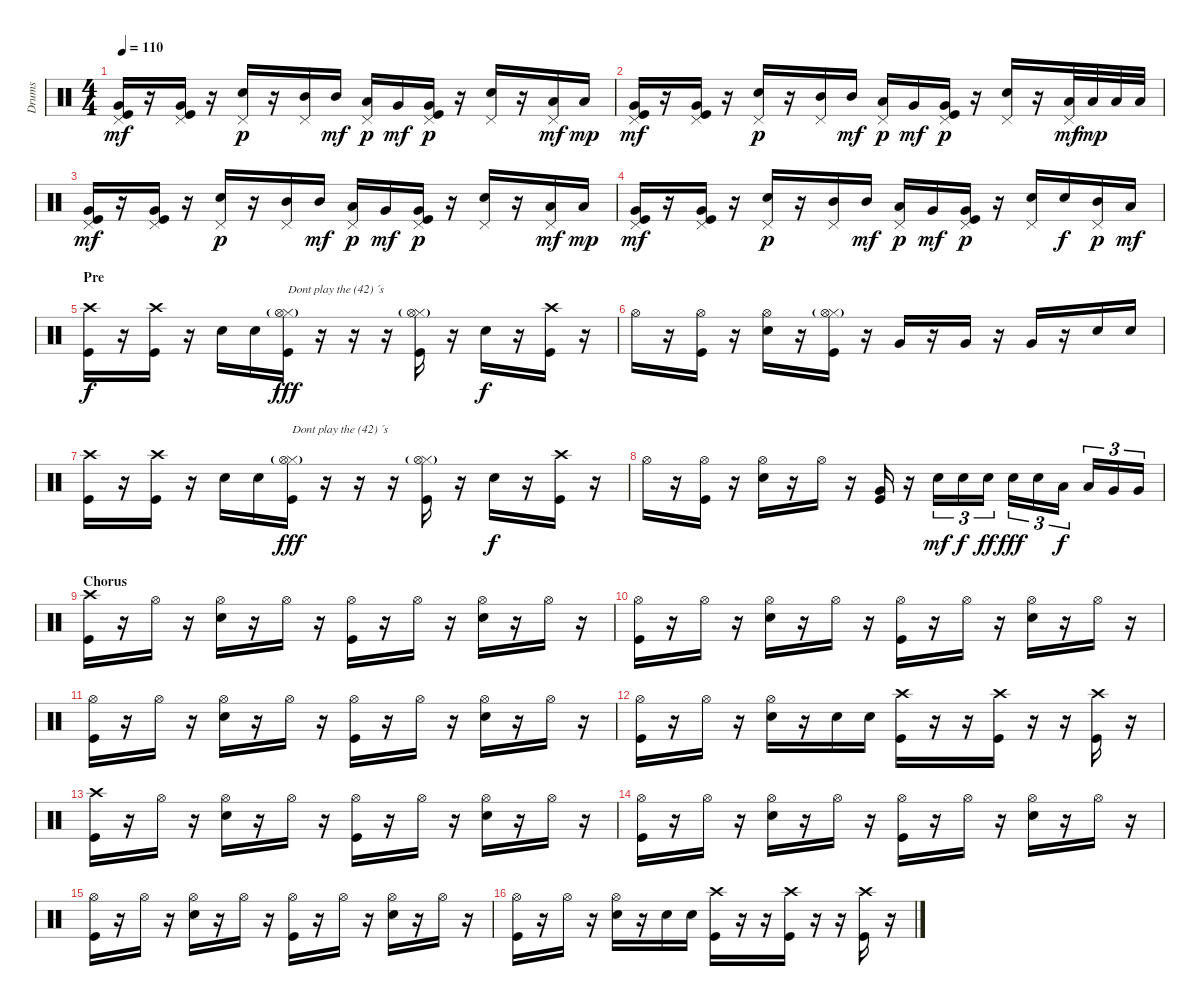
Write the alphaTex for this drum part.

\track ("Drums" "Drums") {instrument percussion}
\staff {score}
\articulation defaults
\ts (4 4)
\tempo 110
\clef neutral
\ks c
("Pedal Hi-Hat (hit)" "Very Low Tom (hit)" "Kick (hit)").16{dy mf} r.16 ("Pedal Hi-Hat (hit)" "Very Low Tom (hit)" "Kick (hit)").16 r.16 ("Pedal Hi-Hat (hit)" "Snare (hit) 2").16{dy p} r.16 ("Pedal Hi-Hat (hit)" "Mid Tom (hit)").16 "Mid Tom (hit)".16{dy mf} ("Pedal Hi-Hat (hit)" "Low Tom (hit)").16{dy p} "Very Low Tom (hit)".16{dy mf} ("Pedal Hi-Hat (hit)" "Very Low Tom (hit)" "Kick (hit)").16{dy p} r.16 ("Pedal Hi-Hat (hit)" "Snare (hit) 2").16 r.16 ("Pedal Hi-Hat (hit)" "Low Tom (hit)").16{dy mf} "Low Tom (hit)".16{dy mp} |
("Pedal Hi-Hat (hit)" "Very Low Tom (hit)" "Kick (hit)").16{dy mf} r.16 ("Pedal Hi-Hat (hit)" "Very Low Tom (hit)" "Kick (hit)").16 r.16 ("Pedal Hi-Hat (hit)" "Snare (hit) 2").16{dy p} r.16 ("Pedal Hi-Hat (hit)" "Mid Tom (hit)").16 "Mid Tom (hit)".16{dy mf} ("Pedal Hi-Hat (hit)" "Low Tom (hit)").16{dy p} "Very Low Tom (hit)".16{dy mf} ("Pedal Hi-Hat (hit)" "Very Low Tom (hit)" "Kick (hit)").16{dy p} r.16 ("Pedal Hi-Hat (hit)" "Snare (hit) 2").16 r.16 ("Pedal Hi-Hat (hit)" "Low Tom (hit)").32{dy mf} "Low Tom (hit)".32{dy mp} "Low Tom (hit)".32 "Low Tom (hit)".32 |
("Pedal Hi-Hat (hit)" "Very Low Tom (hit)" "Kick (hit)").16{dy mf} r.16 ("Pedal Hi-Hat (hit)" "Very Low Tom (hit)" "Kick (hit)").16 r.16 ("Pedal Hi-Hat (hit)" "Snare (hit) 2").16{dy p} r.16 ("Pedal Hi-Hat (hit)" "Mid Tom (hit)").16 "Mid Tom (hit)".16{dy mf} ("Pedal Hi-Hat (hit)" "Low Tom (hit)").16{dy p} "Very Low Tom (hit)".16{dy mf} ("Pedal Hi-Hat (hit)" "Very Low Tom (hit)" "Kick (hit)").16{dy p} r.16 ("Pedal Hi-Hat (hit)" "Snare (hit) 2").16 r.16 ("Pedal Hi-Hat (hit)" "Low Tom (hit)").16{dy mf} "Low Tom (hit)".16{dy mp} |
("Pedal Hi-Hat (hit)" "Very Low Tom (hit)" "Kick (hit)").16{dy mf} r.16 ("Pedal Hi-Hat (hit)" "Very Low Tom (hit)" "Kick (hit)").16 r.16 ("Pedal Hi-Hat (hit)" "Snare (hit) 2").16{dy p} r.16 ("Pedal Hi-Hat (hit)" "Mid Tom (hit)").16 "Mid Tom (hit)".16{dy mf} ("Pedal Hi-Hat (hit)" "Low Tom (hit)").16{dy p} "Very Low Tom (hit)".16{dy mf} ("Pedal Hi-Hat (hit)" "Very Low Tom (hit)" "Kick (hit)").16{dy p} r.16 ("Pedal Hi-Hat (hit)" "Snare (hit) 2").16 "Snare (hit) 2".16{dy f} ("Pedal Hi-Hat (hit)" "Mid Tom (hit)").16{dy p} "Low Tom (hit)".16{dy mf} |
\section ("" "Pre")
("Crash high (hit)" "Kick (hit)").16{dy f} r.16 ("Crash high (hit)" "Kick (hit)").16 r.16 "Snare (hit) 2".16 "Snare (hit) 2".16 ("Hi-Hat (closed)"{g} "Hi-Hat (open)" "Kick (hit)").16{txt "Dont play the (42) ´s" dy fff} r.16 r.16 r.16 ("Hi-Hat (closed)"{g} "Hi-Hat (open)" "Kick (hit)").16 r.16 "Snare (hit) 2".16{dy f} r.16 ("Crash high (hit)" "Kick (hit)").16 r.16 |
"Hi-Hat (open)".16 r.16 ("Hi-Hat (open)" "Kick (hit)").16 r.16 ("Hi-Hat (open)" "Snare (hit) 2").16 r.16 ("Hi-Hat (closed)"{g} "Hi-Hat (open)" "Kick (hit)").16 r.16 "Very Low Tom (hit)".16 r.16 "Very Low Tom (hit)".16 r.16 "Very Low Tom (hit)".16 r.16 "Snare (hit) 2".16 "Snare (hit) 2".16 |
("Crash high (hit)" "Kick (hit)").16 r.16 ("Crash high (hit)" "Kick (hit)").16 r.16 "Snare (hit) 2".16 "Snare (hit) 2".16 ("Hi-Hat (closed)"{g} "Hi-Hat (open)" "Kick (hit)").16{txt "Dont play the (42) ´s" dy fff} r.16 r.16 r.16 ("Hi-Hat (closed)"{g} "Hi-Hat (open)" "Kick (hit)").16 r.16 "Snare (hit) 2".16{dy f} r.16 ("Crash high (hit)" "Kick (hit)").16 r.16 |
"Hi-Hat (open)".16 r.16 ("Hi-Hat (open)" "Kick (hit)").16 r.16 ("Hi-Hat (open)" "Snare (hit) 2").16 r.16 "Hi-Hat (open)".16 r.16 ("Very Low Tom (hit)" "Kick (hit)").16 r.16 "Snare (hit) 2".16{tu (3 2) dy mf} "Snare (hit) 2".16{tu (3 2) dy f} "Snare (hit) 2".16{tu (3 2) dy ff} "Snare (hit) 2".16{tu (3 2) dy fff} "Snare (hit) 2".16{tu (3 2)} "Low Tom (hit)".16{tu (3 2) dy f} "Low Tom (hit)".16{tu (3 2)} "Very Low Tom (hit)".16{tu (3 2)} "Very Low Tom (hit)".16{tu (3 2)} |
\section ("" "Chorus")
("Crash high (hit)" "Kick (hit)").16 r.16 "Hi-Hat (open)".16 r.16 ("Hi-Hat (open)" "Snare (hit) 2").16 r.16 "Hi-Hat (open)".16 r.16 ("Hi-Hat (open)" "Kick (hit)").16 r.16 "Hi-Hat (open)".16 r.16 ("Hi-Hat (open)" "Snare (hit) 2").16 r.16 "Hi-Hat (open)".16 r.16 |
("Hi-Hat (open)" "Kick (hit)").16 r.16 "Hi-Hat (open)".16 r.16 ("Hi-Hat (open)" "Snare (hit) 2").16 r.16 "Hi-Hat (open)".16 r.16 ("Hi-Hat (open)" "Kick (hit)").16 r.16 "Hi-Hat (open)".16 r.16 ("Hi-Hat (open)" "Snare (hit) 2").16 r.16 "Hi-Hat (open)".16 r.16 |
("Hi-Hat (open)" "Kick (hit)").16 r.16 "Hi-Hat (open)".16 r.16 ("Hi-Hat (open)" "Snare (hit) 2").16 r.16 "Hi-Hat (open)".16 r.16 ("Hi-Hat (open)" "Kick (hit)").16 r.16 "Hi-Hat (open)".16 r.16 ("Hi-Hat (open)" "Snare (hit) 2").16 r.16 "Hi-Hat (open)".16 r.16 |
("Hi-Hat (open)" "Kick (hit)").16 r.16 "Hi-Hat (open)".16 r.16 ("Hi-Hat (open)" "Snare (hit) 2").16 r.16 "Snare (hit) 2".16 "Snare (hit) 2".16 ("Crash high (hit)" "Kick (hit)").16 r.16 r.16 ("Crash high (hit)" "Kick (hit)").16 r.16 r.16 ("Crash high (hit)" "Kick (hit)").16 r.16 |
("Crash high (hit)" "Kick (hit)").16 r.16 "Hi-Hat (open)".16 r.16 ("Hi-Hat (open)" "Snare (hit) 2").16 r.16 "Hi-Hat (open)".16 r.16 ("Hi-Hat (open)" "Kick (hit)").16 r.16 "Hi-Hat (open)".16 r.16 ("Hi-Hat (open)" "Snare (hit) 2").16 r.16 "Hi-Hat (open)".16 r.16 |
("Hi-Hat (open)" "Kick (hit)").16 r.16 "Hi-Hat (open)".16 r.16 ("Hi-Hat (open)" "Snare (hit) 2").16 r.16 "Hi-Hat (open)".16 r.16 ("Hi-Hat (open)" "Kick (hit)").16 r.16 "Hi-Hat (open)".16 r.16 ("Hi-Hat (open)" "Snare (hit) 2").16 r.16 "Hi-Hat (open)".16 r.16 |
("Hi-Hat (open)" "Kick (hit)").16 r.16 "Hi-Hat (open)".16 r.16 ("Hi-Hat (open)" "Snare (hit) 2").16 r.16 "Hi-Hat (open)".16 r.16 ("Hi-Hat (open)" "Kick (hit)").16 r.16 "Hi-Hat (open)".16 r.16 ("Hi-Hat (open)" "Snare (hit) 2").16 r.16 "Hi-Hat (open)".16 r.16 |
("Hi-Hat (open)" "Kick (hit)").16 r.16 "Hi-Hat (open)".16 r.16 ("Hi-Hat (open)" "Snare (hit) 2").16 r.16 "Snare (hit) 2".16 "Snare (hit) 2".16 ("Crash high (hit)" "Kick (hit)").16 r.16 r.16 ("Crash high (hit)" "Kick (hit)").16 r.16 r.16 ("Crash high (hit)" "Kick (hit)").16 r.16
